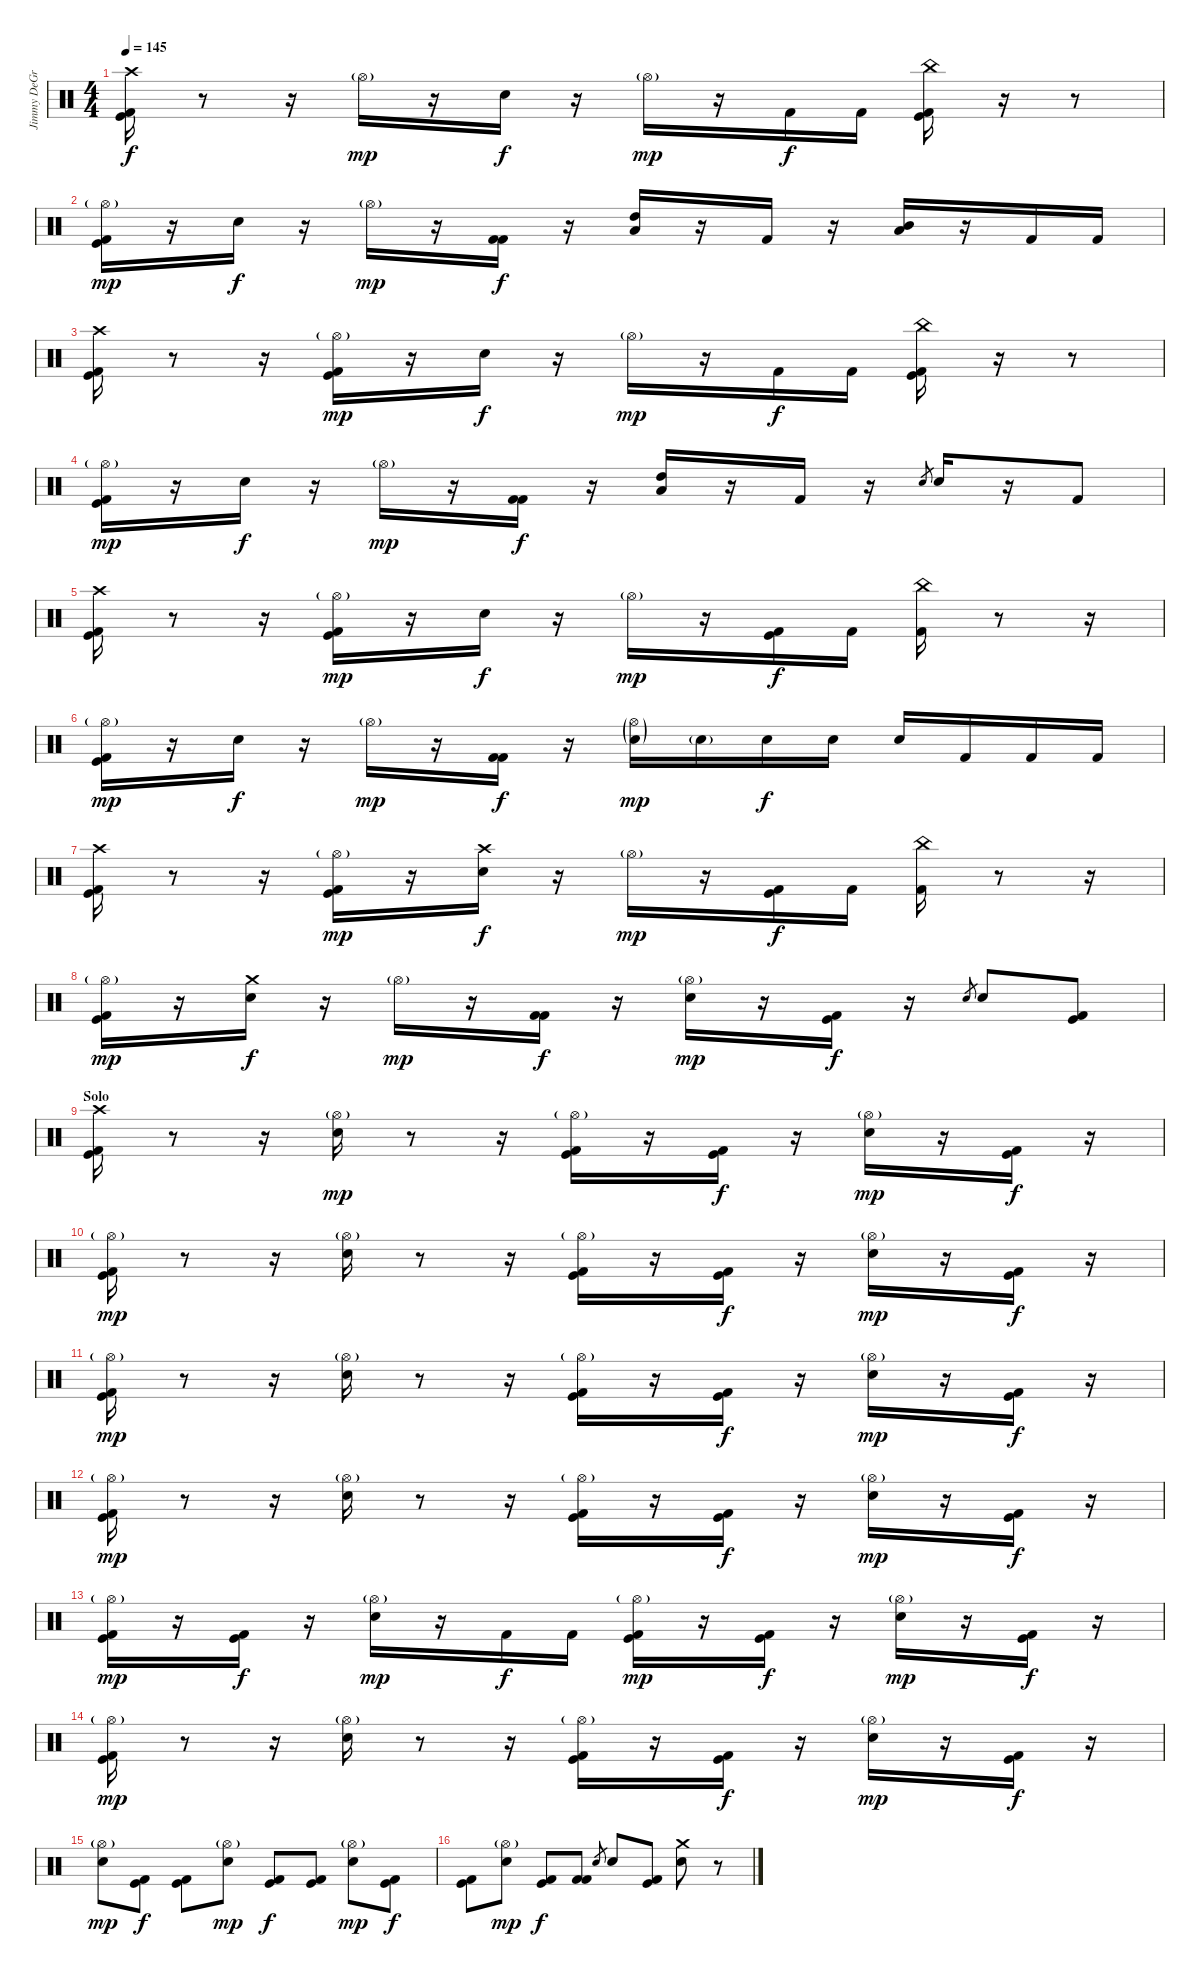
\track ("Jimmy DeGrasso" "Jimmy DeGr") {instrument percussion}
\staff {score}
\articulation defaults
\ts (4 4)
\tempo 145
\clef neutral
\ks c
("Crash high (hit)" "Kick (hit)" "Kick (hit) 2").16{dy f} r.8 r.16 "Hi-Hat (open)"{g}.16{dy mp} r.16 "Electric Snare (hit)".16{dy f} r.16 "Hi-Hat (open)"{g}.16{dy mp} r.16 "Kick (hit) 2".16{dy f} "Kick (hit) 2".16 ("China (hit)" "Kick (hit)" "Kick (hit) 2").16 r.16 r.8 |
("Hi-Hat (open)"{g} "Kick (hit)" "Kick (hit) 2").16{dy mp} r.16 "Electric Snare (hit)".16{dy f} r.16 "Hi-Hat (open)"{g}.16{dy mp} r.16 ("Kick (hit) 2" "Kick (hit) 2").16{dy f} r.16 ("High Tom (hit)" "Low Floor Tom (hit)").16 r.16 "Kick (hit) 2".16 r.16 ("Mid Tom (hit)" "Low Floor Tom (hit)").16 r.16 "Kick (hit) 2".16 "Kick (hit) 2".16 |
("Crash high (hit)" "Kick (hit)" "Kick (hit) 2").16 r.8 r.16 ("Hi-Hat (open)"{g} "Kick (hit)" "Kick (hit) 2").16{dy mp} r.16 "Electric Snare (hit)".16{dy f} r.16 "Hi-Hat (open)"{g}.16{dy mp} r.16 "Kick (hit) 2".16{dy f} "Kick (hit) 2".16 ("China (hit)" "Kick (hit)" "Kick (hit) 2").16 r.16 r.8 |
("Hi-Hat (open)"{g} "Kick (hit)" "Kick (hit) 2").16{dy mp} r.16 "Electric Snare (hit)".16{dy f} r.16 "Hi-Hat (open)"{g}.16{dy mp} r.16 ("Kick (hit) 2" "Kick (hit) 2").16{dy f} r.16 ("High Tom (hit)" "Low Floor Tom (hit)").16 r.16 "Kick (hit) 2".16 r.16 "Electric Snare (hit)".8{gr} "Electric Snare (hit)".16 r.16 "Kick (hit) 2".8 |
("Crash high (hit)" "Kick (hit)" "Kick (hit) 2").16 r.8 r.16 ("Hi-Hat (open)"{g} "Kick (hit)" "Kick (hit) 2").16{dy mp} r.16 "Electric Snare (hit)".16{dy f} r.16 "Hi-Hat (open)"{g}.16{dy mp} r.16 ("Kick (hit)" "Kick (hit) 2").16{dy f} "Kick (hit) 2".16 ("China (hit)" "Kick (hit) 2").16 r.8 r.16 |
("Hi-Hat (open)"{g} "Kick (hit)" "Kick (hit) 2").16{dy mp} r.16 "Electric Snare (hit)".16{dy f} r.16 "Hi-Hat (open)"{g}.16{dy mp} r.16 ("Kick (hit) 2" "Kick (hit) 2").16{dy f} r.16 ("Hi-Hat (open)"{g} "Electric Snare (hit)"{g}).16{dy mp} "Electric Snare (hit)"{g}.16 "Electric Snare (hit)".16{dy f} "Electric Snare (hit)".16 "Electric Snare (hit)".16 "Kick (hit) 2".16 "Kick (hit) 2".16 "Kick (hit) 2".16 |
("Crash high (hit)" "Kick (hit)" "Kick (hit) 2").16 r.8 r.16 ("Hi-Hat (open)"{g} "Kick (hit)" "Kick (hit) 2").16{dy mp} r.16 ("Crash high (hit)" "Electric Snare (hit)").16{dy f} r.16 "Hi-Hat (open)"{g}.16{dy mp} r.16 ("Kick (hit)" "Kick (hit) 2").16{dy f} "Kick (hit) 2".16 ("China (hit)" "Kick (hit) 2").16 r.8 r.16 |
("Hi-Hat (open)"{g} "Kick (hit)" "Kick (hit) 2").16{dy mp} r.16 ("Crash medium (hit)" "Electric Snare (hit)").16{dy f} r.16 "Hi-Hat (open)"{g}.16{dy mp} r.16 ("Kick (hit) 2" "Kick (hit) 2").16{dy f} r.16 ("Hi-Hat (open)"{g} "Electric Snare (hit)").16{dy mp} r.16 ("Kick (hit)" "Kick (hit) 2").16{dy f} r.16 "Electric Snare (hit)".8{gr} "Electric Snare (hit)".8 ("Kick (hit)" "Kick (hit) 2").8 |
\section ("" "Solo")
("Crash high (hit)" "Kick (hit)" "Kick (hit) 2").16 r.8 r.16 ("Hi-Hat (open)"{g} "Electric Snare (hit)").16{dy mp} r.8 r.16 ("Hi-Hat (open)"{g} "Kick (hit)" "Kick (hit) 2").16 r.16 ("Kick (hit)" "Kick (hit) 2").16{dy f} r.16 ("Hi-Hat (open)"{g} "Electric Snare (hit)").16{dy mp} r.16 ("Kick (hit)" "Kick (hit) 2").16{dy f} r.16 |
("Hi-Hat (open)"{g} "Kick (hit)" "Kick (hit) 2").16{dy mp} r.8 r.16 ("Hi-Hat (open)"{g} "Electric Snare (hit)").16 r.8 r.16 ("Hi-Hat (open)"{g} "Kick (hit)" "Kick (hit) 2").16 r.16 ("Kick (hit)" "Kick (hit) 2").16{dy f} r.16 ("Hi-Hat (open)"{g} "Electric Snare (hit)").16{dy mp} r.16 ("Kick (hit)" "Kick (hit) 2").16{dy f} r.16 |
("Hi-Hat (open)"{g} "Kick (hit)" "Kick (hit) 2").16{dy mp} r.8 r.16 ("Hi-Hat (open)"{g} "Electric Snare (hit)").16 r.8 r.16 ("Hi-Hat (open)"{g} "Kick (hit)" "Kick (hit) 2").16 r.16 ("Kick (hit)" "Kick (hit) 2").16{dy f} r.16 ("Hi-Hat (open)"{g} "Electric Snare (hit)").16{dy mp} r.16 ("Kick (hit)" "Kick (hit) 2").16{dy f} r.16 |
("Hi-Hat (open)"{g} "Kick (hit)" "Kick (hit) 2").16{dy mp} r.8 r.16 ("Hi-Hat (open)"{g} "Electric Snare (hit)").16 r.8 r.16 ("Hi-Hat (open)"{g} "Kick (hit)" "Kick (hit) 2").16 r.16 ("Kick (hit)" "Kick (hit) 2").16{dy f} r.16 ("Hi-Hat (open)"{g} "Electric Snare (hit)").16{dy mp} r.16 ("Kick (hit)" "Kick (hit) 2").16{dy f} r.16 |
("Hi-Hat (open)"{g} "Kick (hit)" "Kick (hit) 2").16{dy mp} r.16 ("Kick (hit)" "Kick (hit) 2").16{dy f} r.16 ("Hi-Hat (open)"{g} "Electric Snare (hit)").16{dy mp} r.16 "Kick (hit) 2".16{dy f} "Kick (hit) 2".16 ("Hi-Hat (open)"{g} "Kick (hit)" "Kick (hit) 2").16{dy mp} r.16 ("Kick (hit)" "Kick (hit) 2").16{dy f} r.16 ("Hi-Hat (open)"{g} "Electric Snare (hit)").16{dy mp} r.16 ("Kick (hit)" "Kick (hit) 2").16{dy f} r.16 |
("Hi-Hat (open)"{g} "Kick (hit)" "Kick (hit) 2").16{dy mp} r.8 r.16 ("Hi-Hat (open)"{g} "Electric Snare (hit)").16 r.8 r.16 ("Hi-Hat (open)"{g} "Kick (hit)" "Kick (hit) 2").16 r.16 ("Kick (hit)" "Kick (hit) 2").16{dy f} r.16 ("Hi-Hat (open)"{g} "Electric Snare (hit)").16{dy mp} r.16 ("Kick (hit)" "Kick (hit) 2").16{dy f} r.16 |
("Hi-Hat (open)"{g} "Electric Snare (hit)").8{dy mp} ("Kick (hit)" "Kick (hit) 2").8{dy f} ("Kick (hit)" "Kick (hit) 2").8 ("Hi-Hat (open)"{g} "Electric Snare (hit)").8{dy mp} ("Kick (hit)" "Kick (hit) 2").8{dy f} ("Kick (hit)" "Kick (hit) 2").8 ("Hi-Hat (open)"{g} "Electric Snare (hit)").8{dy mp} ("Kick (hit)" "Kick (hit) 2").8{dy f} |
("Kick (hit)" "Kick (hit) 2").8 ("Hi-Hat (open)"{g} "Electric Snare (hit)").8{dy mp} ("Kick (hit)" "Kick (hit) 2").8{dy f} ("Kick (hit) 2" "Kick (hit) 2").8 "Electric Snare (hit)".8{gr} "Electric Snare (hit)".8 ("Kick (hit)" "Kick (hit) 2").8 ("Crash medium (hit)" "Electric Snare (hit)").8 r.8
